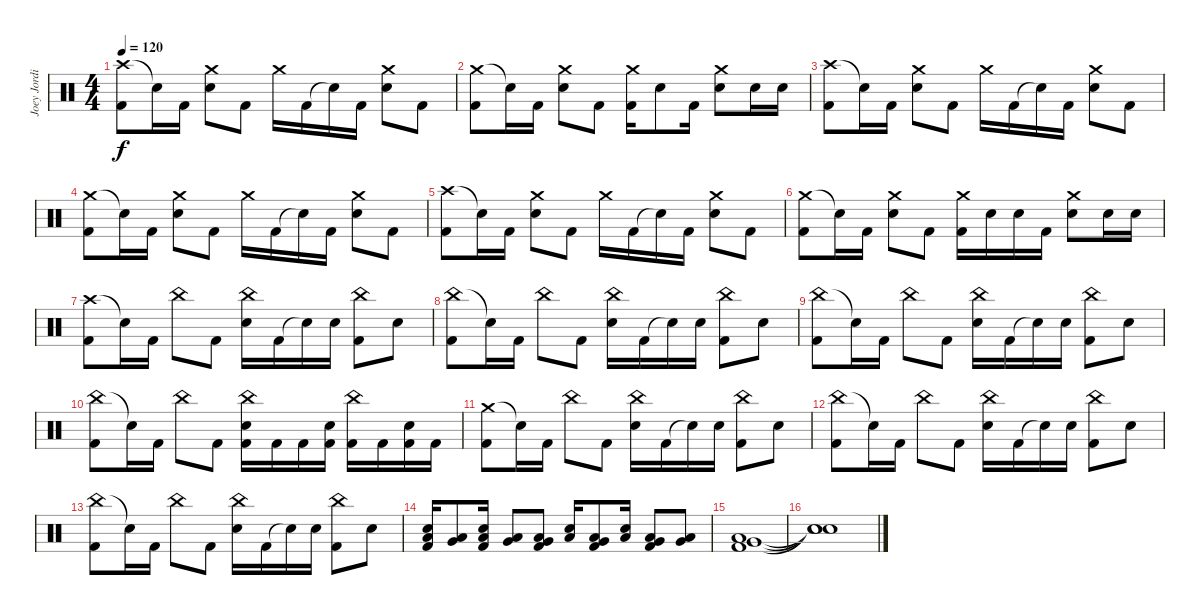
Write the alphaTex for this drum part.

\track ("Joey Jordison" "Joey Jordi") {instrument percussion}
\staff {score}
\articulation defaults
\ts (4 4)
\tempo 120
\clef neutral
\ks c
("Crash high (hit)" "Kick (hit) 2").8{dy f} "Snare (hit)"{t}.16 "Kick (hit) 2".16 ("Crash medium (hit)" "Electric Snare (hit)").8 "Kick (hit) 2".8 "Crash medium (hit)".16 "Kick (hit) 2".16 "Snare (hit)"{t}.16 "Kick (hit) 2".16 ("Crash medium (hit)" "Electric Snare (hit)").8 "Kick (hit) 2".8 |
("Crash medium (hit)" "Kick (hit) 2").8 "Snare (hit)"{t}.16 "Kick (hit) 2".16 ("Crash medium (hit)" "Electric Snare (hit)").8 "Kick (hit) 2".8 ("Crash medium (hit)" "Kick (hit) 2").16 "Electric Snare (hit)".8 "Kick (hit) 2".16 ("Crash medium (hit)" "Electric Snare (hit)").8 "Electric Snare (hit)".16 "Electric Snare (hit)".16 |
("Crash high (hit)" "Kick (hit) 2").8 "Snare (hit)"{t}.16 "Kick (hit) 2".16 ("Crash medium (hit)" "Electric Snare (hit)").8 "Kick (hit) 2".8 "Crash medium (hit)".16 "Kick (hit) 2".16 "Snare (hit)"{t}.16 "Kick (hit) 2".16 ("Crash medium (hit)" "Electric Snare (hit)").8 "Kick (hit) 2".8 |
("Crash medium (hit)" "Kick (hit) 2").8 "Snare (hit)"{t}.16 "Kick (hit) 2".16 ("Crash medium (hit)" "Electric Snare (hit)").8 "Kick (hit) 2".8 "Crash medium (hit)".16 "Kick (hit) 2".16 "Snare (hit)"{t}.16 "Kick (hit) 2".16 ("Crash medium (hit)" "Electric Snare (hit)").8 "Kick (hit) 2".8 |
("Crash high (hit)" "Kick (hit) 2").8 "Snare (hit)"{t}.16 "Kick (hit) 2".16 ("Crash medium (hit)" "Electric Snare (hit)").8 "Kick (hit) 2".8 "Crash medium (hit)".16 "Kick (hit) 2".16 "Snare (hit)"{t}.16 "Kick (hit) 2".16 ("Crash medium (hit)" "Electric Snare (hit)").8 "Kick (hit) 2".8 |
("Crash medium (hit)" "Kick (hit) 2").8 "Snare (hit)"{t}.16 "Kick (hit) 2".16 ("Crash medium (hit)" "Electric Snare (hit)").8 "Kick (hit) 2".8 ("Crash medium (hit)" "Kick (hit) 2").16 "Electric Snare (hit)".16 "Electric Snare (hit)".16 "Kick (hit) 2".16 ("Crash medium (hit)" "Electric Snare (hit)").8 "Electric Snare (hit)".16 "Electric Snare (hit)".16 |
("Crash high (hit)" "Kick (hit) 2").8 "Snare (hit)"{t}.16 "Kick (hit) 2".16 "China (hit)".8 "Kick (hit) 2".8 ("China (hit)" "Electric Snare (hit)").16 "Kick (hit) 2".16 "Snare (hit)"{t}.16 "Electric Snare (hit)".16 ("China (hit)" "Kick (hit) 2").8 "Electric Snare (hit)".8 |
("China (hit)" "Kick (hit) 2").8 "Snare (hit)"{t}.16 "Kick (hit) 2".16 "China (hit)".8 "Kick (hit) 2".8 ("China (hit)" "Electric Snare (hit)").16 "Kick (hit) 2".16 "Snare (hit)"{t}.16 "Electric Snare (hit)".16 ("China (hit)" "Kick (hit) 2").8 "Electric Snare (hit)".8 |
("China (hit)" "Kick (hit) 2").8 "Snare (hit)"{t}.16 "Kick (hit) 2".16 "China (hit)".8 "Kick (hit) 2".8 ("China (hit)" "Electric Snare (hit)").16 "Kick (hit) 2".16 "Snare (hit)"{t}.16 "Electric Snare (hit)".16 ("China (hit)" "Kick (hit) 2").8 "Electric Snare (hit)".8 |
("China (hit)" "Kick (hit) 2").8 "Snare (hit)"{t}.16 "Kick (hit) 2".16 "China (hit)".8 "Kick (hit) 2".8 ("China (hit)" "Electric Snare (hit)" "Kick (hit) 2").16 "Kick (hit) 2".16 "Kick (hit) 2".16 ("Electric Snare (hit)" "Kick (hit) 2").16 ("China (hit)" "Kick (hit) 2").16 "Kick (hit) 2".16 ("Electric Snare (hit)" "Kick (hit) 2").16 "Kick (hit) 2".16 |
("Crash medium (hit)" "Kick (hit) 2").8 "Snare (hit)"{t}.16 "Kick (hit) 2".16 "China (hit)".8 "Kick (hit) 2".8 ("China (hit)" "Electric Snare (hit)").16 "Kick (hit) 2".16 "Snare (hit)"{t}.16 "Electric Snare (hit)".16 ("China (hit)" "Kick (hit) 2").8 "Electric Snare (hit)".8 |
("China (hit)" "Kick (hit) 2").8 "Snare (hit)"{t}.16 "Kick (hit) 2".16 "China (hit)".8 "Kick (hit) 2".8 ("China (hit)" "Electric Snare (hit)").16 "Kick (hit) 2".16 "Snare (hit)"{t}.16 "Electric Snare (hit)".16 ("China (hit)" "Kick (hit) 2").8 "Electric Snare (hit)".8 |
("China (hit)" "Kick (hit) 2").8 "Snare (hit)"{t}.16 "Kick (hit) 2".16 "China (hit)".8 "Kick (hit) 2".8 ("China (hit)" "Electric Snare (hit)").16 "Kick (hit) 2".16 "Snare (hit)"{t}.16 "Electric Snare (hit)".16 ("China (hit)" "Kick (hit) 2").8 "Electric Snare (hit)".8 |
("Low Floor Tom (hit)" "Electric Snare (hit)" "Kick (hit) 2").16 ("Low Floor Tom (hit)" "Very Low Tom (hit)").8 ("Low Floor Tom (hit)" "Electric Snare (hit)" "Kick (hit) 2").16 ("Low Floor Tom (hit)" "Very Low Tom (hit)").8 ("Low Floor Tom (hit)" "Very Low Tom (hit)" "Kick (hit) 2").8 ("Low Floor Tom (hit)" "Electric Snare (hit)").16 ("Low Floor Tom (hit)" "Very Low Tom (hit)" "Kick (hit) 2").8 ("Low Floor Tom (hit)" "Electric Snare (hit)").16 ("Low Floor Tom (hit)" "Very Low Tom (hit)" "Kick (hit) 2").8 ("Low Floor Tom (hit)" "Very Low Tom (hit)").8 |
("Low Floor Tom (hit)" "Very Low Tom (hit)" "Kick (hit) 2").1 |
("Snare (hit)"{t} "Snare (hit)"{t} "Snare (hit)"{t}).1
